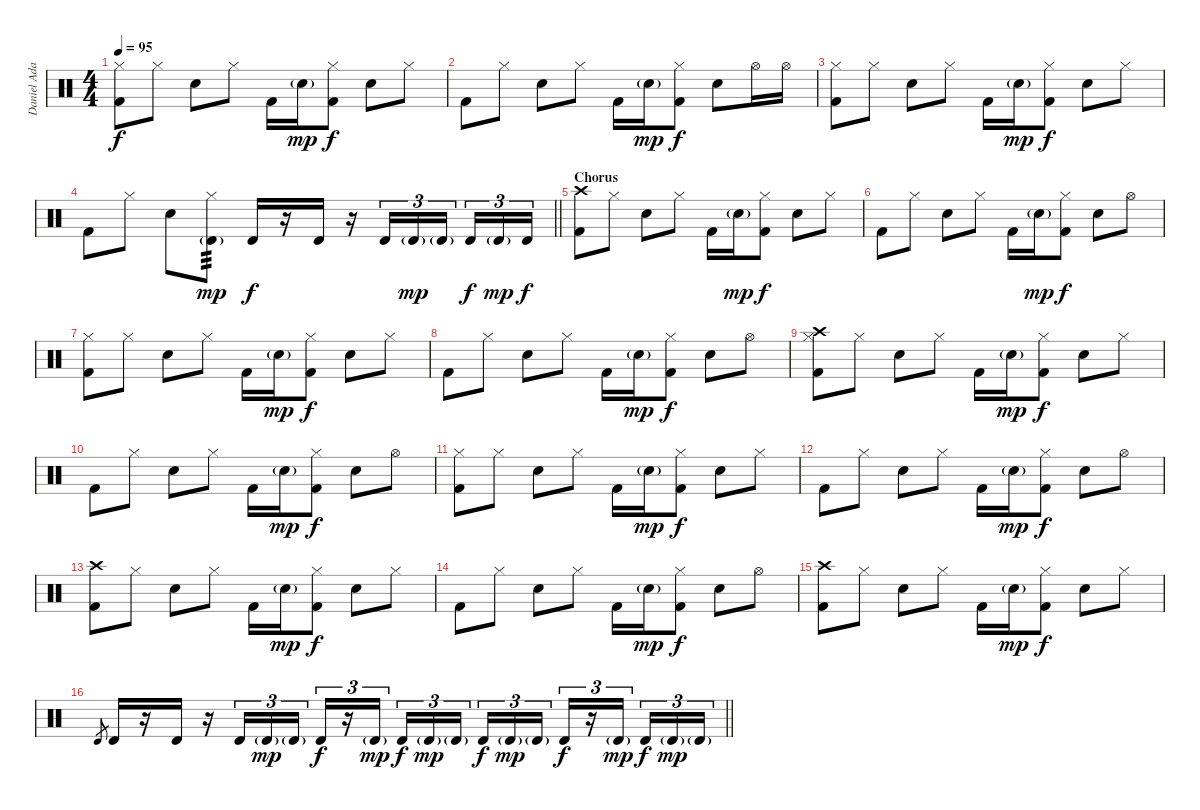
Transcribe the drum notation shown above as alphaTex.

\track ("Daniel Adair" "Daniel Ada") {instrument percussion}
\staff {score}
\articulation defaults
\ts (4 4)
\tempo 95
\clef neutral
\ks c
("Hi-Hat (closed)" "Kick (hit) 2").8{dy f} "Hi-Hat (closed)".8 "Electric Snare (hit)".8 "Hi-Hat (closed)".8 "Kick (hit) 2".16 "Electric Snare (hit)"{g}.16{dy mp} ("Hi-Hat (closed)" "Kick (hit) 2").8{dy f} "Electric Snare (hit)".8 "Hi-Hat (closed)".8 |
"Kick (hit) 2".8 "Hi-Hat (closed)".8 "Electric Snare (hit)".8 "Hi-Hat (closed)".8 "Kick (hit) 2".16 "Electric Snare (hit)"{g}.16{dy mp} ("Hi-Hat (closed)" "Kick (hit) 2").8{dy f} "Electric Snare (hit)".8 "Hi-Hat (open)".16 "Hi-Hat (open)".16 |
("Hi-Hat (closed)" "Kick (hit) 2").8 "Hi-Hat (closed)".8 "Electric Snare (hit)".8 "Hi-Hat (closed)".8 "Kick (hit) 2".16 "Electric Snare (hit)"{g}.16{dy mp} ("Hi-Hat (closed)" "Kick (hit) 2").8{dy f} "Electric Snare (hit)".8 "Hi-Hat (closed)".8 |
\barLineRight lightlight "Kick (hit) 2".8 "Hi-Hat (closed)".8 "Electric Snare (hit)".8
("Timbale high (hit)"{g} "Hi-Hat (closed)").8{tp 3 dy mp} "Timbale high (hit)".16{dy f} r.16 "Timbale high (hit)".16 r.16 "Timbale high (hit)".16{tu (3 2)} "Timbale high (hit)"{g}.16{tu (3 2) dy mp} "Timbale high (hit)"{g}.16{tu (3 2) beam splitsecondary} "Timbale high (hit)".16{tu (3 2) dy f} "Timbale high (hit)"{g}.16{tu (3 2) dy mp} "Timbale high (hit)".16{tu (3 2) dy f} |
\section ("" "Chorus")
("Crash high (hit)" "Kick (hit) 2").8 "Hi-Hat (closed)".8 "Electric Snare (hit)".8 "Hi-Hat (closed)".8 "Kick (hit) 2".16 "Electric Snare (hit)"{g}.16{dy mp} ("Hi-Hat (closed)" "Kick (hit) 2").8{dy f} "Electric Snare (hit)".8 "Hi-Hat (closed)".8 |
"Kick (hit) 2".8 "Hi-Hat (closed)".8 "Electric Snare (hit)".8 "Hi-Hat (closed)".8 "Kick (hit) 2".16 "Electric Snare (hit)"{g}.16{dy mp} ("Hi-Hat (closed)" "Kick (hit) 2").8{dy f} "Electric Snare (hit)".8 "Hi-Hat (open)".8 |
("Hi-Hat (closed)" "Kick (hit) 2").8 "Hi-Hat (closed)".8 "Electric Snare (hit)".8 "Hi-Hat (closed)".8 "Kick (hit) 2".16 "Electric Snare (hit)"{g}.16{dy mp} ("Hi-Hat (closed)" "Kick (hit) 2").8{dy f} "Electric Snare (hit)".8 "Hi-Hat (closed)".8 |
"Kick (hit) 2".8 "Hi-Hat (closed)".8 "Electric Snare (hit)".8 "Hi-Hat (closed)".8 "Kick (hit) 2".16 "Electric Snare (hit)"{g}.16{dy mp} ("Hi-Hat (closed)" "Kick (hit) 2").8{dy f} "Electric Snare (hit)".8 "Hi-Hat (open)".8 |
("Crash high (hit)" "Hi-Hat (closed)" "Kick (hit) 2").8 "Hi-Hat (closed)".8 "Electric Snare (hit)".8 "Hi-Hat (closed)".8 "Kick (hit) 2".16 "Electric Snare (hit)"{g}.16{dy mp} ("Hi-Hat (closed)" "Kick (hit) 2").8{dy f} "Electric Snare (hit)".8 "Hi-Hat (closed)".8 |
"Kick (hit) 2".8 "Hi-Hat (closed)".8 "Electric Snare (hit)".8 "Hi-Hat (closed)".8 "Kick (hit) 2".16 "Electric Snare (hit)"{g}.16{dy mp} ("Hi-Hat (closed)" "Kick (hit) 2").8{dy f} "Electric Snare (hit)".8 "Hi-Hat (open)".8 |
("Hi-Hat (closed)" "Kick (hit) 2").8 "Hi-Hat (closed)".8 "Electric Snare (hit)".8 "Hi-Hat (closed)".8 "Kick (hit) 2".16 "Electric Snare (hit)"{g}.16{dy mp} ("Hi-Hat (closed)" "Kick (hit) 2").8{dy f} "Electric Snare (hit)".8 "Hi-Hat (closed)".8 |
"Kick (hit) 2".8 "Hi-Hat (closed)".8 "Electric Snare (hit)".8 "Hi-Hat (closed)".8 "Kick (hit) 2".16 "Electric Snare (hit)"{g}.16{dy mp} ("Hi-Hat (closed)" "Kick (hit) 2").8{dy f} "Electric Snare (hit)".8 "Hi-Hat (open)".8 |
("Crash high (hit)" "Kick (hit) 2").8 "Hi-Hat (closed)".8 "Electric Snare (hit)".8 "Hi-Hat (closed)".8 "Kick (hit) 2".16 "Electric Snare (hit)"{g}.16{dy mp} ("Hi-Hat (closed)" "Kick (hit) 2").8{dy f} "Electric Snare (hit)".8 "Hi-Hat (closed)".8 |
"Kick (hit) 2".8 "Hi-Hat (closed)".8 "Electric Snare (hit)".8 "Hi-Hat (closed)".8 "Kick (hit) 2".16 "Electric Snare (hit)"{g}.16{dy mp} ("Hi-Hat (closed)" "Kick (hit) 2").8{dy f} "Electric Snare (hit)".8 "Hi-Hat (open)".8 |
("Crash high (hit)" "Kick (hit) 2").8 "Hi-Hat (closed)".8 "Electric Snare (hit)".8 "Hi-Hat (closed)".8 "Kick (hit) 2".16 "Electric Snare (hit)"{g}.16{dy mp} ("Hi-Hat (closed)" "Kick (hit) 2").8{dy f} "Electric Snare (hit)".8 "Hi-Hat (closed)".8 |
\barLineRight lightlight "Timbale high (hit)".8{gr} "Timbale high (hit)".16
r.16 "Timbale high (hit)".16 r.16 "Timbale high (hit)".16{tu (3 2)} "Timbale high (hit)"{g}.16{tu (3 2) dy mp} "Timbale high (hit)"{g}.16{tu (3 2) beam splitsecondary} "Timbale high (hit)".16{tu (3 2) dy f} r.16{tu (3 2)} "Timbale high (hit)"{g}.16{tu (3 2) dy mp} "Timbale high (hit)".16{tu (3 2) dy f} "Timbale high (hit)"{g}.16{tu (3 2) dy mp} "Timbale high (hit)"{g}.16{tu (3 2) beam splitsecondary} "Timbale high (hit)".16{tu (3 2) dy f} "Timbale high (hit)"{g}.16{tu (3 2) dy mp} "Timbale high (hit)"{g}.16{tu (3 2)} "Timbale high (hit)".16{tu (3 2) dy f} r.16{tu (3 2)} "Timbale high (hit)"{g}.16{tu (3 2) dy mp beam splitsecondary} "Timbale high (hit)".16{tu (3 2) dy f} "Timbale high (hit)"{g}.16{tu (3 2) dy mp} "Timbale high (hit)"{g}.16{tu (3 2)}
